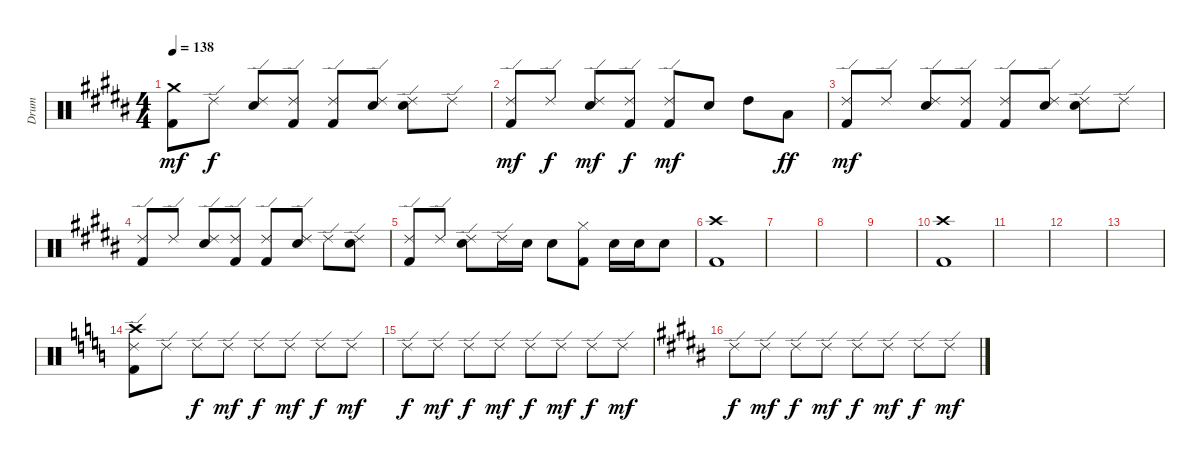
\track ("Drum" "Drum") {instrument percussion}
\staff {score}
\articulation defaults
\ts (4 4)
\tempo 138
\clef neutral
\ks g#minor
("Crash medium (hit)" "Kick (hit) 2").8{dy mf} "Ride (edge) 2".8{dy f} ("Ride (edge) 2" "Electric Snare (hit)").8 ("Ride (edge) 2" "Kick (hit) 2").8 ("Ride (edge) 2" "Kick (hit) 2").8 ("Ride (edge) 2" "Electric Snare (hit)").8 ("Ride (edge) 2" "Electric Snare (hit)").8 "Ride (edge) 2".8 |
("Ride (edge) 2" "Kick (hit) 2").8{dy mf} "Ride (edge) 2".8{dy f} ("Ride (edge) 2" "Electric Snare (hit)").8{dy mf} ("Ride (edge) 2" "Kick (hit) 2").8{dy f} ("Ride (edge) 2" "Kick (hit) 2").8{dy mf} "Electric Snare (hit)".8 "High Tom (hit)".8 "Low Floor Tom (hit)".8{dy ff} |
("Ride (edge) 2" "Kick (hit) 2").8{dy mf} "Ride (edge) 2".8 ("Ride (edge) 2" "Electric Snare (hit)").8 ("Ride (edge) 2" "Kick (hit) 2").8 ("Ride (edge) 2" "Kick (hit) 2").8 ("Ride (edge) 2" "Electric Snare (hit)").8 ("Ride (edge) 2" "Electric Snare (hit)").8 "Ride (edge) 2".8 |
("Ride (edge) 2" "Kick (hit) 2").8 "Ride (edge) 2".8 ("Ride (edge) 2" "Electric Snare (hit)").8 ("Ride (edge) 2" "Kick (hit) 2").8 ("Ride (edge) 2" "Kick (hit) 2").8 ("Ride (edge) 2" "Electric Snare (hit)").8 "Ride (edge) 2".8 ("Ride (edge) 2" "Electric Snare (hit)").8 |
("Ride (edge) 2" "Kick (hit) 2").8 "Ride (edge) 2".8 ("Ride (edge) 2" "Electric Snare (hit)").8 "Ride (edge) 2".16 "Electric Snare (hit)".16 "Electric Snare (hit)".8 ("Hi-Hat (closed)" "Kick (hit) 2").8 "Electric Snare (hit)".16 "Electric Snare (hit)".16 "Electric Snare (hit)".8 |
("Crash high (hit)" "Kick (hit) 2").1 |
\ks b
|
\ks g#minor
|
\ks b
|
\ks g#minor
("Crash high (hit)" "Kick (hit) 2").1 |
\ks b
|
\ks g#minor
|
\ks b
|
\ks c
("Ride (edge) 2" "Crash high (hit)" "Kick (hit) 2").8 "Ride (edge) 2".8 "Ride (edge) 2".8{dy f} "Ride (edge) 2".8{dy mf} "Ride (edge) 2".8{dy f} "Ride (edge) 2".8{dy mf} "Ride (edge) 2".8{dy f} "Ride (edge) 2".8{dy mf} |
"Ride (edge) 2".8{dy f} "Ride (edge) 2".8{dy mf} "Ride (edge) 2".8{dy f} "Ride (edge) 2".8{dy mf} "Ride (edge) 2".8{dy f} "Ride (edge) 2".8{dy mf} "Ride (edge) 2".8{dy f} "Ride (edge) 2".8{dy mf} |
\ks g#minor "Ride (edge) 2".8{dy f} "Ride (edge) 2".8{dy mf} "Ride (edge) 2".8{dy f} "Ride (edge) 2".8{dy mf} "Ride (edge) 2".8{dy f} "Ride (edge) 2".8{dy mf} "Ride (edge) 2".8{dy f} "Ride (edge) 2".8{dy mf}
